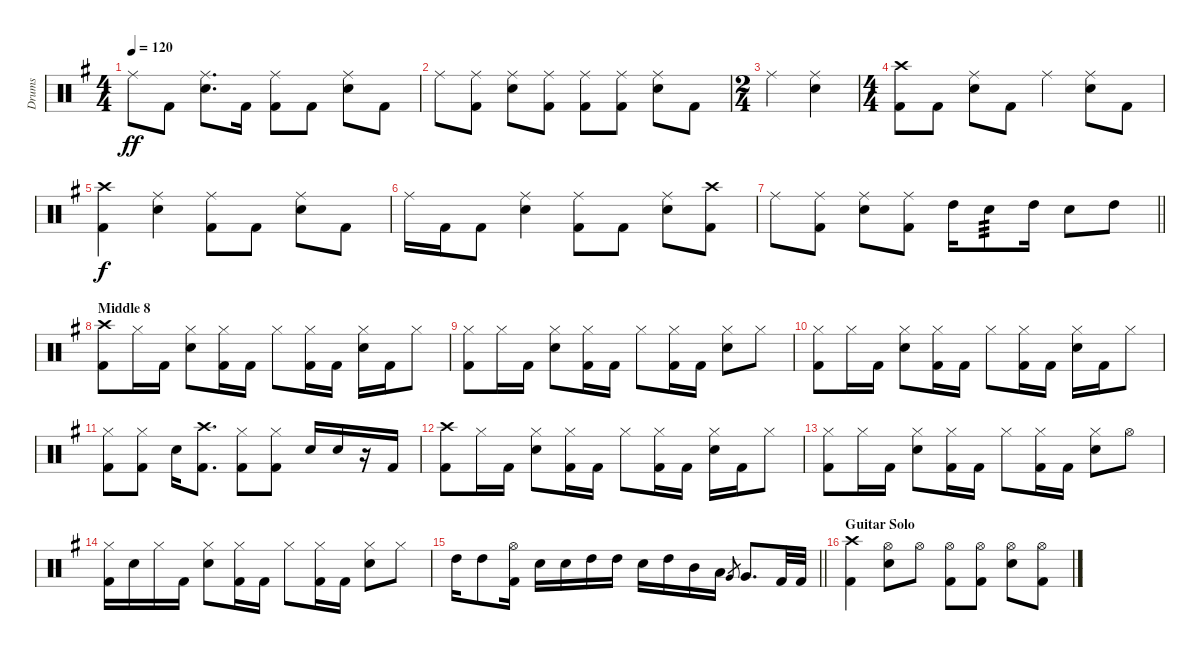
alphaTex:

\track ("Drums" "Drums") {instrument percussion}
\staff {score}
\articulation defaults
\ts (4 4)
\tempo 120
\clef neutral
\ks g "Ride (middle)".8{dy ff} "Kick (hit) 2".8
("Ride (middle)" "Snare (hit) 2").8{d} "Kick (hit) 2".16 ("Ride (middle)" "Kick (hit) 2").8 "Kick (hit) 2".8 ("Ride (middle)" "Snare (hit) 2").8 "Kick (hit) 2".8 |
"Ride (middle)".8 ("Ride (middle)" "Kick (hit) 2").8 ("Ride (middle)" "Snare (hit) 2").8 ("Ride (middle)" "Kick (hit) 2").8 ("Ride (middle)" "Kick (hit) 2").8 ("Ride (middle)" "Kick (hit) 2").8 ("Ride (middle)" "Snare (hit) 2").8 "Kick (hit) 2".8 |
\ts (2 4)
"Ride (middle)".4 ("Ride (middle)" "Snare (hit) 2").4 |
\ts (4 4)
("Crash high (hit)" "Kick (hit) 2").8 "Kick (hit) 2".8 ("Ride (middle)" "Snare (hit) 2").8 "Kick (hit) 2".8 "Ride (middle)".4 ("Ride (middle)" "Snare (hit) 2").8 "Kick (hit) 2".8 |
("Crash high (hit)" "Kick (hit) 2").4{dy f} ("Ride (middle)" "Snare (hit) 2").4 ("Ride (middle)" "Kick (hit) 2").8 "Kick (hit) 2".8 ("Ride (middle)" "Snare (hit) 2").8 "Kick (hit) 2".8 |
"Ride (middle)".16 "Kick (hit) 2".16 "Kick (hit) 2".8 ("Ride (middle)" "Snare (hit) 2").4 ("Ride (middle)" "Kick (hit) 2").8 "Kick (hit) 2".8 ("Ride (middle)" "Snare (hit) 2").8 ("Crash high (hit)" "Kick (hit) 2").8 |
\barLineRight lightlight "Ride (middle)".8
("Ride (middle)" "Kick (hit) 2").8 ("Ride (middle)" "Snare (hit) 2").8 ("Ride (middle)" "Kick (hit) 2").8 "High Tom (hit)".16 "Snare (hit) 2".8{tp 3} "High Tom (hit)".16 "Snare (hit) 2".8 "High Tom (hit)".8 |
\section ("" "Middle 8")
("Crash high (hit)" "Kick (hit) 2").8 "Hi-Hat (closed)".16 "Kick (hit) 2".16 ("Hi-Hat (closed)" "Snare (hit) 2").8 ("Hi-Hat (closed)" "Kick (hit) 2").16 "Kick (hit) 2".16 "Hi-Hat (closed)".8 ("Hi-Hat (closed)" "Kick (hit) 2").16 "Kick (hit) 2".16 ("Hi-Hat (closed)" "Snare (hit) 2").16 "Kick (hit) 2".16 "Hi-Hat (closed)".8 |
("Hi-Hat (closed)" "Kick (hit) 2").8 "Hi-Hat (closed)".16 "Kick (hit) 2".16 ("Hi-Hat (closed)" "Snare (hit) 2").8 ("Hi-Hat (closed)" "Kick (hit) 2").16 "Kick (hit) 2".16 "Hi-Hat (closed)".8 ("Hi-Hat (closed)" "Kick (hit) 2").16 "Kick (hit) 2".16 ("Hi-Hat (closed)" "Snare (hit) 2").8 "Hi-Hat (closed)".8 |
("Hi-Hat (closed)" "Kick (hit) 2").8 "Hi-Hat (closed)".16 "Kick (hit) 2".16 ("Hi-Hat (closed)" "Snare (hit) 2").8 ("Hi-Hat (closed)" "Kick (hit) 2").16 "Kick (hit) 2".16 "Hi-Hat (closed)".8 ("Hi-Hat (closed)" "Kick (hit) 2").16 "Kick (hit) 2".16 ("Hi-Hat (closed)" "Snare (hit) 2").16 "Kick (hit) 2".16 "Hi-Hat (closed)".8 |
("Hi-Hat (closed)" "Kick (hit) 2").8 ("Hi-Hat (closed)" "Kick (hit) 2").8 "Snare (hit) 2".16 ("Crash high (hit)" "Kick (hit) 2").8{d} ("Hi-Hat (closed)" "Kick (hit) 2").8 ("Hi-Hat (closed)" "Kick (hit) 2").8 "Snare (hit) 2".16 "Snare (hit) 2".16 r.16 "Kick (hit) 2".16 |
("Crash high (hit)" "Kick (hit) 2").8 "Hi-Hat (closed)".16 "Kick (hit) 2".16 ("Hi-Hat (closed)" "Snare (hit) 2").8 ("Hi-Hat (closed)" "Kick (hit) 2").16 "Kick (hit) 2".16 "Hi-Hat (closed)".8 ("Hi-Hat (closed)" "Kick (hit) 2").16 "Kick (hit) 2".16 ("Hi-Hat (closed)" "Snare (hit) 2").16 "Kick (hit) 2".16 "Hi-Hat (closed)".8 |
("Hi-Hat (closed)" "Kick (hit) 2").8 "Hi-Hat (closed)".16 "Kick (hit) 2".16 ("Hi-Hat (closed)" "Snare (hit) 2").8 ("Hi-Hat (closed)" "Kick (hit) 2").16 "Kick (hit) 2".16 "Hi-Hat (closed)".8 ("Hi-Hat (closed)" "Kick (hit) 2").16 "Kick (hit) 2".16 ("Hi-Hat (closed)" "Snare (hit) 2").8 "Hi-Hat (open)".8 |
("Hi-Hat (closed)" "Kick (hit) 2").16 "Snare (hit) 2".16 "Hi-Hat (closed)".16 "Kick (hit) 2".16 ("Hi-Hat (closed)" "Snare (hit) 2").8 ("Hi-Hat (closed)" "Kick (hit) 2").16 "Kick (hit) 2".16 "Hi-Hat (closed)".8 ("Hi-Hat (closed)" "Kick (hit) 2").16 "Kick (hit) 2".16 ("Hi-Hat (closed)" "Snare (hit) 2").8 "Hi-Hat (closed)".8 |
\barLineRight lightlight "High Tom (hit)".16 "High Tom (hit)".8
("Hi-Hat (open)" "Kick (hit) 2").16 "Snare (hit) 2".16 "Snare (hit) 2".16 "High Tom (hit)".16 "High Tom (hit)".16 "Snare (hit) 2".16 "High Tom (hit)".16 "Mid Tom (hit)".16 "Low Tom (hit)".16 "Very Low Tom (hit)".8{gr} "Very Low Tom (hit)".8{d} "Kick (hit) 2".32 "Kick (hit) 2".32 |
\section ("" "Guitar Solo")
("Crash high (hit)" "Kick (hit) 2").4 ("Hi-Hat (open)" "Snare (hit) 2").8 "Hi-Hat (open)".8 ("Hi-Hat (open)" "Kick (hit) 2").8 ("Hi-Hat (open)" "Kick (hit) 2").8 ("Hi-Hat (open)" "Snare (hit) 2").8 ("Hi-Hat (open)" "Kick (hit) 2").8
